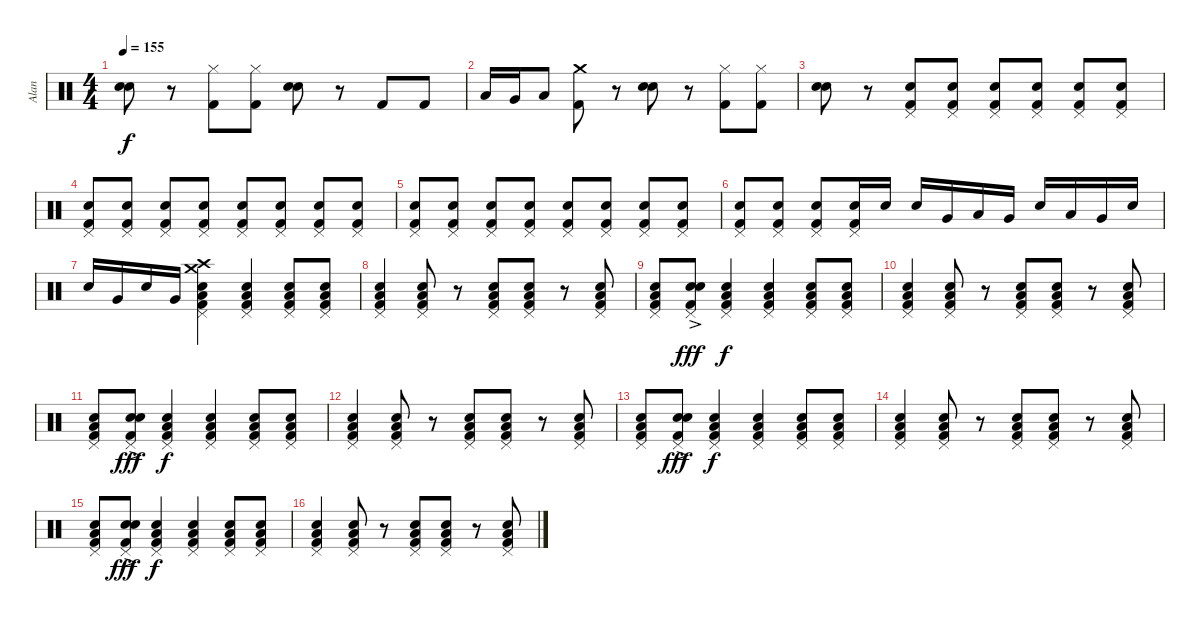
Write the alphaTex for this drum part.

\track ("Alan" "Alan") {instrument percussion}
\staff {score}
\articulation defaults
\ts (4 4)
\tempo 155
\clef neutral
\ks c
("Snare (hit) 2" "Snare (hit) 2").8{dy f} r.8 ("Hi-Hat (closed)" "Kick (hit) 2").8 ("Hi-Hat (closed)" "Kick (hit) 2").8 ("Snare (hit) 2" "Snare (hit) 2").8 r.8 "Kick (hit) 2".8 "Kick (hit) 2".8 |
"Low Tom (hit)".16 "Very Low Tom (hit)".16 "Low Floor Tom (hit)".8 ("Kick (hit) 2" "Crash medium (hit)").8 r.8 ("Snare (hit) 2" "Snare (hit) 2").8 r.8 ("Hi-Hat (closed)" "Kick (hit) 2").8 ("Hi-Hat (closed)" "Kick (hit) 2").8 |
("Snare (hit) 2" "Snare (hit) 2").8 r.8 ("Snare (hit) 2" "Pedal Hi-Hat (hit)" "Kick (hit) 2").8{volume 4} ("Snare (hit) 2" "Pedal Hi-Hat (hit)" "Kick (hit) 2").8 ("Snare (hit) 2" "Pedal Hi-Hat (hit)" "Kick (hit) 2").8 ("Snare (hit) 2" "Pedal Hi-Hat (hit)" "Kick (hit) 2").8 ("Snare (hit) 2" "Pedal Hi-Hat (hit)" "Kick (hit) 2").8 ("Snare (hit) 2" "Pedal Hi-Hat (hit)" "Kick (hit) 2").8 |
("Snare (hit) 2" "Pedal Hi-Hat (hit)" "Kick (hit) 2").8{volume 6} ("Snare (hit) 2" "Pedal Hi-Hat (hit)" "Kick (hit) 2").8 ("Snare (hit) 2" "Pedal Hi-Hat (hit)" "Kick (hit) 2").8 ("Snare (hit) 2" "Pedal Hi-Hat (hit)" "Kick (hit) 2").8 ("Snare (hit) 2" "Pedal Hi-Hat (hit)" "Kick (hit) 2").8 ("Snare (hit) 2" "Pedal Hi-Hat (hit)" "Kick (hit) 2").8 ("Snare (hit) 2" "Pedal Hi-Hat (hit)" "Kick (hit) 2").8 ("Snare (hit) 2" "Pedal Hi-Hat (hit)" "Kick (hit) 2").8 |
("Snare (hit) 2" "Pedal Hi-Hat (hit)" "Kick (hit) 2").8{volume 8} ("Snare (hit) 2" "Pedal Hi-Hat (hit)" "Kick (hit) 2").8 ("Snare (hit) 2" "Pedal Hi-Hat (hit)" "Kick (hit) 2").8 ("Snare (hit) 2" "Pedal Hi-Hat (hit)" "Kick (hit) 2").8 ("Snare (hit) 2" "Pedal Hi-Hat (hit)" "Kick (hit) 2").8 ("Snare (hit) 2" "Pedal Hi-Hat (hit)" "Kick (hit) 2").8 ("Snare (hit) 2" "Pedal Hi-Hat (hit)" "Kick (hit) 2").8 ("Snare (hit) 2" "Pedal Hi-Hat (hit)" "Kick (hit) 2").8 |
("Snare (hit) 2" "Pedal Hi-Hat (hit)" "Kick (hit) 2").8{volume 11} ("Snare (hit) 2" "Pedal Hi-Hat (hit)" "Kick (hit) 2").8 ("Snare (hit) 2" "Pedal Hi-Hat (hit)" "Kick (hit) 2").8 ("Snare (hit) 2" "Pedal Hi-Hat (hit)" "Kick (hit) 2").16 "Snare (hit) 2".16 "Snare (hit) 2".16 "Very Low Tom (hit)".16 "Low Floor Tom (hit)".16 "Very Low Tom (hit)".16 "Snare (hit) 2".16 "Low Floor Tom (hit)".16 "Very Low Tom (hit)".16 "Snare (hit) 2".16 |
"Snare (hit) 2".16 "Very Low Tom (hit)".16 "Snare (hit) 2".16 "Very Low Tom (hit)".16 ("Kick (hit) 2" "Snare (hit) 2" "Low Floor Tom (hit)" "Pedal Hi-Hat (hit)" "Crash medium (hit)" "Crash high (hit)").4 ("Kick (hit) 2" "Low Floor Tom (hit)" "Snare (hit) 2" "Pedal Hi-Hat (hit)").4 ("Kick (hit) 2" "Low Floor Tom (hit)" "Snare (hit) 2" "Pedal Hi-Hat (hit)").8 ("Kick (hit) 2" "Low Floor Tom (hit)" "Snare (hit) 2" "Pedal Hi-Hat (hit)").8 |
("Kick (hit) 2" "Low Floor Tom (hit)" "Snare (hit) 2" "Pedal Hi-Hat (hit)").4 ("Kick (hit) 2" "Low Floor Tom (hit)" "Snare (hit) 2" "Pedal Hi-Hat (hit)").8 r.8 ("Kick (hit) 2" "Low Floor Tom (hit)" "Snare (hit) 2" "Pedal Hi-Hat (hit)").8 ("Kick (hit) 2" "Low Floor Tom (hit)" "Snare (hit) 2" "Pedal Hi-Hat (hit)").8 r.8 ("Kick (hit) 2" "Low Floor Tom (hit)" "Snare (hit) 2" "Pedal Hi-Hat (hit)").8 |
("Kick (hit) 2" "Low Floor Tom (hit)" "Snare (hit) 2" "Pedal Hi-Hat (hit)").8 ("Kick (hit) 2"{ac} "Snare (hit) 2" "Snare (hit) 2" "Pedal Hi-Hat (hit)").8{dy fff volume 16} ("Kick (hit) 2" "Low Floor Tom (hit)" "Snare (hit) 2" "Pedal Hi-Hat (hit)").4{dy f volume 11} ("Kick (hit) 2" "Low Floor Tom (hit)" "Snare (hit) 2" "Pedal Hi-Hat (hit)").4 ("Kick (hit) 2" "Low Floor Tom (hit)" "Snare (hit) 2" "Pedal Hi-Hat (hit)").8 ("Kick (hit) 2" "Low Floor Tom (hit)" "Snare (hit) 2" "Pedal Hi-Hat (hit)").8 |
("Kick (hit) 2" "Low Floor Tom (hit)" "Snare (hit) 2" "Pedal Hi-Hat (hit)").4 ("Kick (hit) 2" "Low Floor Tom (hit)" "Snare (hit) 2" "Pedal Hi-Hat (hit)").8 r.8 ("Kick (hit) 2" "Low Floor Tom (hit)" "Snare (hit) 2" "Pedal Hi-Hat (hit)").8 ("Kick (hit) 2" "Low Floor Tom (hit)" "Snare (hit) 2" "Pedal Hi-Hat (hit)").8 r.8 ("Kick (hit) 2" "Low Floor Tom (hit)" "Snare (hit) 2" "Pedal Hi-Hat (hit)").8 |
("Kick (hit) 2" "Low Floor Tom (hit)" "Snare (hit) 2" "Pedal Hi-Hat (hit)").8 ("Kick (hit) 2"{ac} "Snare (hit) 2" "Snare (hit) 2" "Pedal Hi-Hat (hit)").8{dy fff volume 16} ("Kick (hit) 2" "Low Floor Tom (hit)" "Snare (hit) 2" "Pedal Hi-Hat (hit)").4{dy f volume 11} ("Kick (hit) 2" "Low Floor Tom (hit)" "Snare (hit) 2" "Pedal Hi-Hat (hit)").4 ("Kick (hit) 2" "Low Floor Tom (hit)" "Snare (hit) 2" "Pedal Hi-Hat (hit)").8 ("Kick (hit) 2" "Low Floor Tom (hit)" "Snare (hit) 2" "Pedal Hi-Hat (hit)").8 |
("Kick (hit) 2" "Low Floor Tom (hit)" "Snare (hit) 2" "Pedal Hi-Hat (hit)").4 ("Kick (hit) 2" "Low Floor Tom (hit)" "Snare (hit) 2" "Pedal Hi-Hat (hit)").8 r.8 ("Kick (hit) 2" "Low Floor Tom (hit)" "Snare (hit) 2" "Pedal Hi-Hat (hit)").8 ("Kick (hit) 2" "Low Floor Tom (hit)" "Snare (hit) 2" "Pedal Hi-Hat (hit)").8 r.8 ("Kick (hit) 2" "Low Floor Tom (hit)" "Snare (hit) 2" "Pedal Hi-Hat (hit)").8 |
("Kick (hit) 2" "Low Floor Tom (hit)" "Snare (hit) 2" "Pedal Hi-Hat (hit)").8 ("Kick (hit) 2"{ac} "Snare (hit) 2" "Snare (hit) 2" "Pedal Hi-Hat (hit)").8{dy fff volume 16} ("Kick (hit) 2" "Low Floor Tom (hit)" "Snare (hit) 2" "Pedal Hi-Hat (hit)").4{dy f volume 11} ("Kick (hit) 2" "Low Floor Tom (hit)" "Snare (hit) 2" "Pedal Hi-Hat (hit)").4 ("Kick (hit) 2" "Low Floor Tom (hit)" "Snare (hit) 2" "Pedal Hi-Hat (hit)").8 ("Kick (hit) 2" "Low Floor Tom (hit)" "Snare (hit) 2" "Pedal Hi-Hat (hit)").8 |
("Kick (hit) 2" "Low Floor Tom (hit)" "Snare (hit) 2" "Pedal Hi-Hat (hit)").4 ("Kick (hit) 2" "Low Floor Tom (hit)" "Snare (hit) 2" "Pedal Hi-Hat (hit)").8 r.8 ("Kick (hit) 2" "Low Floor Tom (hit)" "Snare (hit) 2" "Pedal Hi-Hat (hit)").8 ("Kick (hit) 2" "Low Floor Tom (hit)" "Snare (hit) 2" "Pedal Hi-Hat (hit)").8 r.8 ("Kick (hit) 2" "Low Floor Tom (hit)" "Snare (hit) 2" "Pedal Hi-Hat (hit)").8 |
("Kick (hit) 2" "Low Floor Tom (hit)" "Snare (hit) 2" "Pedal Hi-Hat (hit)").8 ("Kick (hit) 2"{ac} "Snare (hit) 2" "Snare (hit) 2" "Pedal Hi-Hat (hit)").8{dy fff volume 16} ("Kick (hit) 2" "Low Floor Tom (hit)" "Snare (hit) 2" "Pedal Hi-Hat (hit)").4{dy f volume 11} ("Kick (hit) 2" "Low Floor Tom (hit)" "Snare (hit) 2" "Pedal Hi-Hat (hit)").4 ("Kick (hit) 2" "Low Floor Tom (hit)" "Snare (hit) 2" "Pedal Hi-Hat (hit)").8 ("Kick (hit) 2" "Low Floor Tom (hit)" "Snare (hit) 2" "Pedal Hi-Hat (hit)").8 |
("Kick (hit) 2" "Low Floor Tom (hit)" "Snare (hit) 2" "Pedal Hi-Hat (hit)").4 ("Kick (hit) 2" "Low Floor Tom (hit)" "Snare (hit) 2" "Pedal Hi-Hat (hit)").8 r.8 ("Kick (hit) 2" "Low Floor Tom (hit)" "Snare (hit) 2" "Pedal Hi-Hat (hit)").8 ("Kick (hit) 2" "Low Floor Tom (hit)" "Snare (hit) 2" "Pedal Hi-Hat (hit)").8 r.8 ("Kick (hit) 2" "Low Floor Tom (hit)" "Snare (hit) 2" "Pedal Hi-Hat (hit)").8
